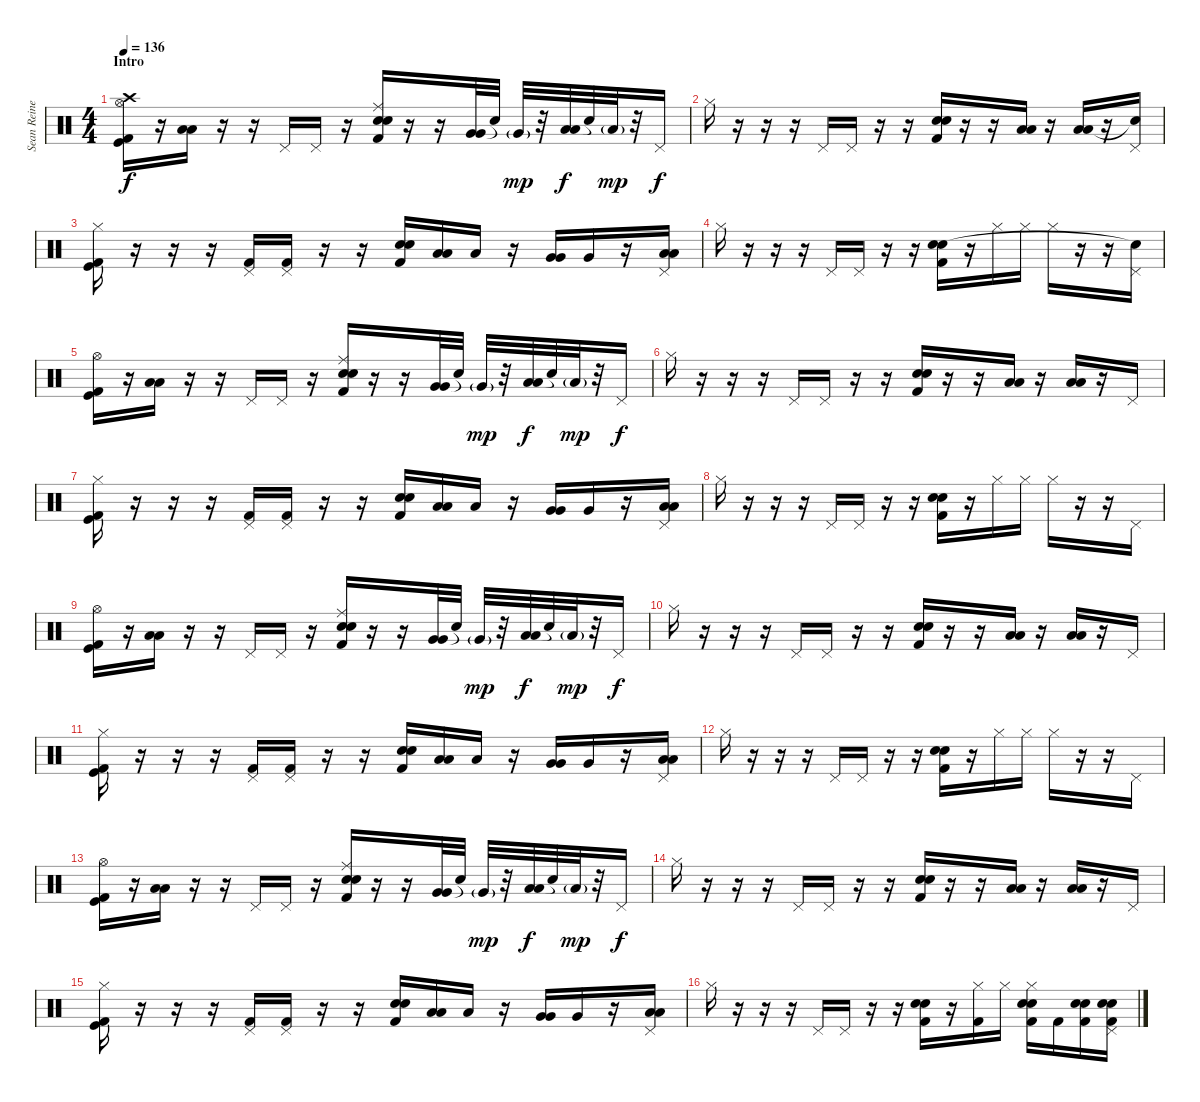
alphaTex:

\track ("Sean Reinert" "Sean Reine") {instrument percussion}
\staff {score}
\articulation defaults
\ts (4 4)
\section ("" "Intro")
\tempo 136
\clef neutral
\ks c
("Crash high (hit)" "Hi-Hat (open)" "Kick (hit)" "Kick (hit) 2").16{dy f} r.16 ("Low Floor Tom (hit)" "Low Floor Tom (hit)").16 r.16 r.16 "Pedal Hi-Hat (hit)".16 "Pedal Hi-Hat (hit)".16 r.16 ("Ride (middle)" "Electric Snare (hit)" "Snare (hit) 2" "Kick (hit) 2").16 r.16 r.16 ("Very Low Tom (hit)" "Very Low Tom (hit)").32 "Snare (hit)"{t}.32 "Very Low Tom (hit)"{g}.32{dy mp} r.32 ("Low Tom (hit)" "Low Tom (hit)").32{dy f} "Snare (hit)"{t}.32 "Low Tom (hit)"{g}.32{dy mp} r.32 "Pedal Hi-Hat (hit)".16{dy f} |
"Hi-Hat (closed)".16 r.16 r.16 r.16 "Pedal Hi-Hat (hit)".16 "Pedal Hi-Hat (hit)".16 r.16 r.16 ("Electric Snare (hit)" "Snare (hit) 2" "Kick (hit) 2").16 r.16 r.16 ("Low Floor Tom (hit)" "Low Floor Tom (hit)").16 r.16 ("Low Floor Tom (hit)" "Low Floor Tom (hit)").16 r.16 ("Pedal Hi-Hat (hit)" "Snare (hit)"{t}).16 |
("Hi-Hat (closed)" "Kick (hit) 2" "Kick (hit)").16 r.16 r.16 r.16 ("Pedal Hi-Hat (hit)" "Kick (hit) 2").16 ("Pedal Hi-Hat (hit)" "Kick (hit) 2").16 r.16 r.16 ("Electric Snare (hit)" "Snare (hit) 2" "Kick (hit) 2").16 ("Low Tom (hit)" "Low Tom (hit)").16 "Low Tom (hit)".16 r.16 ("Very Low Tom (hit)" "Very Low Tom (hit)").16 "Very Low Tom (hit)".16 r.16 ("Pedal Hi-Hat (hit)" "Low Floor Tom (hit)" "Low Floor Tom (hit)").16 |
"Hi-Hat (closed)".16 r.16 r.16 r.16 "Pedal Hi-Hat (hit)".16 "Pedal Hi-Hat (hit)".16 r.16 r.16 ("Electric Snare (hit)" "Snare (hit) 2" "Kick (hit) 2").16 r.16 "Hi-Hat (closed)".16 "Hi-Hat (closed)".16 "Hi-Hat (closed)".16 r.16 r.16 ("Pedal Hi-Hat (hit)" "Snare (hit)"{t}).16 |
("Hi-Hat (open)" "Kick (hit)" "Kick (hit) 2").16 r.16 ("Low Floor Tom (hit)" "Low Floor Tom (hit)").16 r.16 r.16 "Pedal Hi-Hat (hit)".16 "Pedal Hi-Hat (hit)".16 r.16 ("Ride (middle)" "Electric Snare (hit)" "Snare (hit) 2" "Kick (hit) 2").16 r.16 r.16 ("Very Low Tom (hit)" "Very Low Tom (hit)").32 "Snare (hit)"{t}.32 "Very Low Tom (hit)"{g}.32{dy mp} r.32 ("Low Tom (hit)" "Low Tom (hit)").32{dy f} "Snare (hit)"{t}.32 "Low Tom (hit)"{g}.32{dy mp} r.32 "Pedal Hi-Hat (hit)".16{dy f} |
"Hi-Hat (closed)".16 r.16 r.16 r.16 "Pedal Hi-Hat (hit)".16 "Pedal Hi-Hat (hit)".16 r.16 r.16 ("Electric Snare (hit)" "Snare (hit) 2" "Kick (hit) 2").16 r.16 r.16 ("Low Floor Tom (hit)" "Low Floor Tom (hit)").16 r.16 ("Low Floor Tom (hit)" "Low Floor Tom (hit)").16 r.16 "Pedal Hi-Hat (hit)".16 |
("Hi-Hat (closed)" "Kick (hit) 2" "Kick (hit)").16 r.16 r.16 r.16 ("Pedal Hi-Hat (hit)" "Kick (hit) 2").16 ("Pedal Hi-Hat (hit)" "Kick (hit) 2").16 r.16 r.16 ("Electric Snare (hit)" "Snare (hit) 2" "Kick (hit) 2").16 ("Low Tom (hit)" "Low Tom (hit)").16 "Low Tom (hit)".16 r.16 ("Very Low Tom (hit)" "Very Low Tom (hit)").16 "Very Low Tom (hit)".16 r.16 ("Pedal Hi-Hat (hit)" "Low Floor Tom (hit)" "Low Floor Tom (hit)").16 |
"Hi-Hat (closed)".16 r.16 r.16 r.16 "Pedal Hi-Hat (hit)".16 "Pedal Hi-Hat (hit)".16 r.16 r.16 ("Electric Snare (hit)" "Snare (hit) 2" "Kick (hit) 2").16 r.16 "Hi-Hat (closed)".16 "Hi-Hat (closed)".16 "Hi-Hat (closed)".16 r.16 r.16 "Pedal Hi-Hat (hit)".16 |
("Hi-Hat (open)" "Kick (hit)" "Kick (hit) 2").16 r.16 ("Low Floor Tom (hit)" "Low Floor Tom (hit)").16 r.16 r.16 "Pedal Hi-Hat (hit)".16 "Pedal Hi-Hat (hit)".16 r.16 ("Ride (middle)" "Electric Snare (hit)" "Snare (hit) 2" "Kick (hit) 2").16 r.16 r.16 ("Very Low Tom (hit)" "Very Low Tom (hit)").32 "Snare (hit)"{t}.32 "Very Low Tom (hit)"{g}.32{dy mp} r.32 ("Low Tom (hit)" "Low Tom (hit)").32{dy f} "Snare (hit)"{t}.32 "Low Tom (hit)"{g}.32{dy mp} r.32 "Pedal Hi-Hat (hit)".16{dy f} |
"Hi-Hat (closed)".16 r.16 r.16 r.16 "Pedal Hi-Hat (hit)".16 "Pedal Hi-Hat (hit)".16 r.16 r.16 ("Electric Snare (hit)" "Snare (hit) 2" "Kick (hit) 2").16 r.16 r.16 ("Low Floor Tom (hit)" "Low Floor Tom (hit)").16 r.16 ("Low Floor Tom (hit)" "Low Floor Tom (hit)").16 r.16 "Pedal Hi-Hat (hit)".16 |
("Hi-Hat (closed)" "Kick (hit) 2" "Kick (hit)").16 r.16 r.16 r.16 ("Pedal Hi-Hat (hit)" "Kick (hit) 2").16 ("Pedal Hi-Hat (hit)" "Kick (hit) 2").16 r.16 r.16 ("Electric Snare (hit)" "Snare (hit) 2" "Kick (hit) 2").16 ("Low Tom (hit)" "Low Tom (hit)").16 "Low Tom (hit)".16 r.16 ("Very Low Tom (hit)" "Very Low Tom (hit)").16 "Very Low Tom (hit)".16 r.16 ("Pedal Hi-Hat (hit)" "Low Floor Tom (hit)" "Low Floor Tom (hit)").16 |
"Hi-Hat (closed)".16 r.16 r.16 r.16 "Pedal Hi-Hat (hit)".16 "Pedal Hi-Hat (hit)".16 r.16 r.16 ("Electric Snare (hit)" "Snare (hit) 2" "Kick (hit) 2").16 r.16 "Hi-Hat (closed)".16 "Hi-Hat (closed)".16 "Hi-Hat (closed)".16 r.16 r.16 "Pedal Hi-Hat (hit)".16 |
("Hi-Hat (open)" "Kick (hit)" "Kick (hit) 2").16 r.16 ("Low Floor Tom (hit)" "Low Floor Tom (hit)").16 r.16 r.16 "Pedal Hi-Hat (hit)".16 "Pedal Hi-Hat (hit)".16 r.16 ("Ride (middle)" "Electric Snare (hit)" "Snare (hit) 2" "Kick (hit) 2").16 r.16 r.16 ("Very Low Tom (hit)" "Very Low Tom (hit)").32 "Snare (hit)"{t}.32 "Very Low Tom (hit)"{g}.32{dy mp} r.32 ("Low Tom (hit)" "Low Tom (hit)").32{dy f} "Snare (hit)"{t}.32 "Low Tom (hit)"{g}.32{dy mp} r.32 "Pedal Hi-Hat (hit)".16{dy f} |
"Hi-Hat (closed)".16 r.16 r.16 r.16 "Pedal Hi-Hat (hit)".16 "Pedal Hi-Hat (hit)".16 r.16 r.16 ("Electric Snare (hit)" "Snare (hit) 2" "Kick (hit) 2").16 r.16 r.16 ("Low Floor Tom (hit)" "Low Floor Tom (hit)").16 r.16 ("Low Floor Tom (hit)" "Low Floor Tom (hit)").16 r.16 "Pedal Hi-Hat (hit)".16 |
("Hi-Hat (closed)" "Kick (hit) 2" "Kick (hit)").16 r.16 r.16 r.16 ("Pedal Hi-Hat (hit)" "Kick (hit) 2").16 ("Pedal Hi-Hat (hit)" "Kick (hit) 2").16 r.16 r.16 ("Electric Snare (hit)" "Snare (hit) 2" "Kick (hit) 2").16 ("Low Tom (hit)" "Low Tom (hit)").16 "Low Tom (hit)".16 r.16 ("Very Low Tom (hit)" "Very Low Tom (hit)").16 "Very Low Tom (hit)".16 r.16 ("Pedal Hi-Hat (hit)" "Low Floor Tom (hit)" "Low Floor Tom (hit)").16 |
"Hi-Hat (closed)".16 r.16 r.16 r.16 "Pedal Hi-Hat (hit)".16 "Pedal Hi-Hat (hit)".16 r.16 r.16 ("Electric Snare (hit)" "Snare (hit) 2" "Kick (hit) 2").16 r.16 ("Hi-Hat (closed)" "Kick (hit) 2").16 "Hi-Hat (closed)".16 ("Hi-Hat (closed)" "Electric Snare (hit)" "Snare (hit) 2" "Kick (hit) 2").16 "Kick (hit) 2".16 ("Electric Snare (hit)" "Snare (hit) 2" "Kick (hit) 2").16 ("Pedal Hi-Hat (hit)" "Electric Snare (hit)" "Snare (hit) 2" "Kick (hit) 2").16
